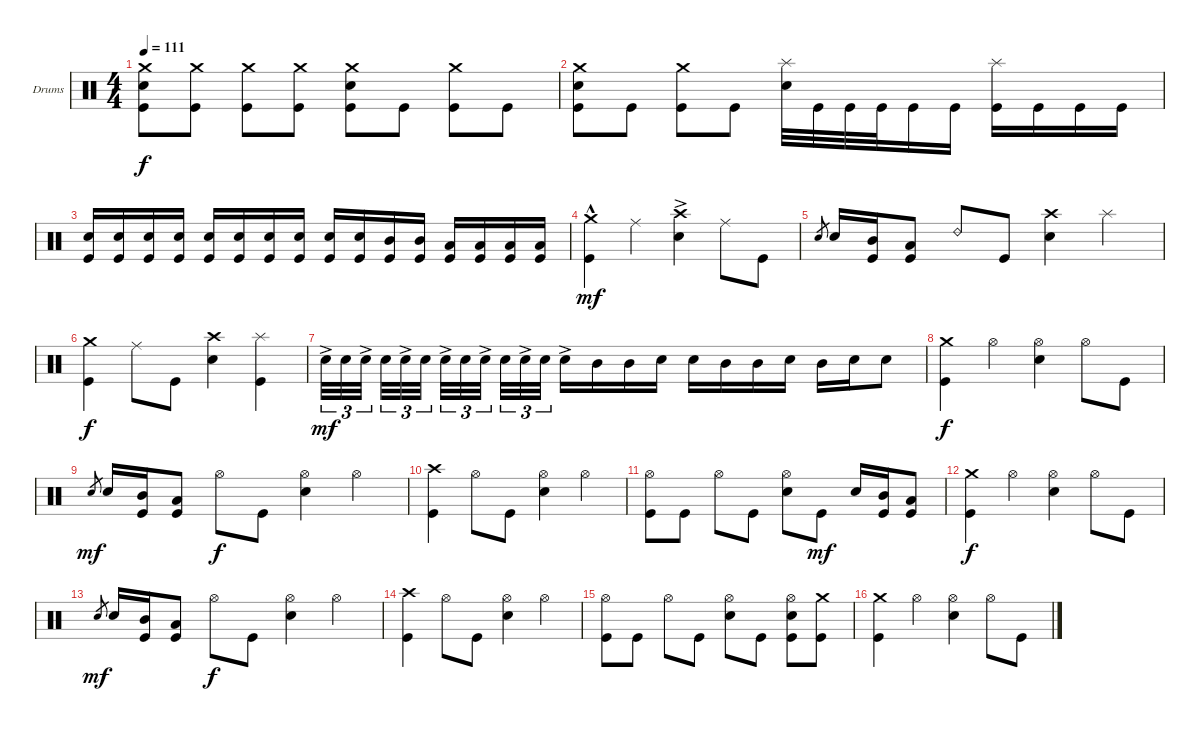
\defaultSystemsLayout 4
\bracketExtendMode groupsimilarinstruments
\firstSystemTrackNameOrientation horizontal
\otherSystemsTrackNameOrientation horizontal
\track ("Drumkit" "Drums") {instrument percussion}
\staff {score}
\articulation defaults
\ts (4 4)
\tempo 111
\clef neutral
\ks c
("Crash medium (hit)" "Snare (hit) 2" "Kick (hit)").8{dy f} ("Crash medium (hit)" "Kick (hit)").8 ("Crash medium (hit)" "Kick (hit)").8 ("Crash medium (hit)" "Kick (hit)").8 ("Crash medium (hit)" "Snare (hit) 2" "Kick (hit)").8 "Kick (hit)".8 ("Crash medium (hit)" "Kick (hit)").8 "Kick (hit)".8 |
("Crash medium (hit)" "Snare (hit) 2" "Kick (hit)").8 "Kick (hit)".8 ("Crash medium (hit)" "Kick (hit)").8 "Kick (hit)".8 ("Splash (hit)" "Snare (hit) 2").32 "Kick (hit)".32 "Kick (hit)".32 "Kick (hit)".32 "Kick (hit)".16 "Kick (hit)".16 ("Splash (hit)" "Kick (hit)").16 "Kick (hit)".16 "Kick (hit)".16 "Kick (hit)".16 |
("Snare (hit) 2" "Kick (hit)").16 ("Snare (hit) 2" "Kick (hit)").16 ("Snare (hit) 2" "Kick (hit)").16 ("Snare (hit) 2" "Kick (hit)").16 ("Snare (hit) 2" "Kick (hit)").16 ("Snare (hit) 2" "Kick (hit)").16 ("Snare (hit) 2" "Kick (hit)").16 ("Snare (hit) 2" "Kick (hit)").16 ("Snare (hit) 2" "Kick (hit)").16 ("Snare (hit) 2" "Kick (hit)").16 ("Mid Tom (hit)" "Kick (hit)").16 ("Mid Tom (hit)" "Kick (hit)").16 ("Low Tom (hit)" "Kick (hit)").16 ("Low Tom (hit)" "Kick (hit)").16 ("Low Tom (hit)" "Kick (hit)").16 ("Low Tom (hit)" "Kick (hit)").16 |
("Kick (hit)" "Crash medium (hit)"{hac}).4{dy mf} "Ride (middle)".4 ("Snare (hit) 2"{ac} "Crash high (hit)").4 "Ride (middle)".8 "Kick (hit)".8 |
"Snare (hit) 2".8{gr} "Snare (hit) 2".16 ("Kick (hit)" "Mid Tom (hit)").16 ("Kick (hit)" "Low Tom (hit)").8 "Ride (bell) 2".8 "Kick (hit)".8 ("Snare (hit) 2" "Crash high (hit)").4 "Splash (hit)".4 |
("Crash medium (hit)" "Kick (hit)").4{dy f} "Ride (middle)".8 "Kick (hit)".8 ("Crash high (hit)" "Snare (hit) 2").4 ("Splash (hit)" "Kick (hit)").4 |
"Snare (hit) 2"{ac}.32{tu (3 2) dy mf} "Snare (hit) 2".32{tu (3 2)} "Snare (hit) 2"{ac}.32{tu (3 2)} "Snare (hit) 2".32{tu (3 2)} "Snare (hit) 2"{ac}.32{tu (3 2)} "Snare (hit) 2".32{tu (3 2)} "Snare (hit) 2"{ac}.32{tu (3 2)} "Snare (hit) 2".32{tu (3 2)} "Snare (hit) 2"{ac}.32{tu (3 2)} "Snare (hit) 2".32{tu (3 2)} "Snare (hit) 2"{ac}.32{tu (3 2)} "Snare (hit) 2".32{tu (3 2)} "Snare (hit) 2"{ac}.16 "Mid Tom (hit)".16 "Mid Tom (hit)".16 "Snare (hit) 2".16 "Snare (hit) 2".16 "Mid Tom (hit)".16 "Mid Tom (hit)".16 "Snare (hit) 2".16 "Mid Tom (hit)".16 "Snare (hit) 2".16 "Snare (hit) 2".8 |
("Crash medium (hit)" "Kick (hit)").4{dy f} "Hi-Hat (open)".4 ("Snare (hit) 2" "Hi-Hat (open)").4 "Hi-Hat (open)".8 "Kick (hit)".8 |
"Snare (hit) 2".8{gr dy mf} "Snare (hit) 2".16 ("Kick (hit)" "Mid Tom (hit)").16 ("Kick (hit)" "Low Tom (hit)").8 "Hi-Hat (open)".8{dy f} "Kick (hit)".8 ("Snare (hit) 2" "Hi-Hat (open)").4 "Hi-Hat (open)".4 |
("Kick (hit)" "Crash high (hit)").4 "Hi-Hat (open)".8 "Kick (hit)".8 ("Snare (hit) 2" "Hi-Hat (open)").4 "Hi-Hat (open)".4 |
("Hi-Hat (open)" "Kick (hit)").8 "Kick (hit)".8 "Hi-Hat (open)".8 "Kick (hit)".8 ("Hi-Hat (open)" "Snare (hit) 2").8 "Kick (hit)".8{dy mf} "Snare (hit) 2".16 ("Kick (hit)" "Mid Tom (hit)").16 ("Kick (hit)" "Low Tom (hit)").8 |
("Crash medium (hit)" "Kick (hit)").4{dy f} "Hi-Hat (open)".4 ("Snare (hit) 2" "Hi-Hat (open)").4 "Hi-Hat (open)".8 "Kick (hit)".8 |
"Snare (hit) 2".8{gr dy mf} "Snare (hit) 2".16 ("Kick (hit)" "Mid Tom (hit)").16 ("Kick (hit)" "Low Tom (hit)").8 "Hi-Hat (open)".8{dy f} "Kick (hit)".8 ("Snare (hit) 2" "Hi-Hat (open)").4 "Hi-Hat (open)".4 |
("Kick (hit)" "Crash high (hit)").4 "Hi-Hat (open)".8 "Kick (hit)".8 ("Snare (hit) 2" "Hi-Hat (open)").4 "Hi-Hat (open)".4 |
("Hi-Hat (open)" "Kick (hit)").8 "Kick (hit)".8 "Hi-Hat (open)".8 "Kick (hit)".8 ("Hi-Hat (open)" "Snare (hit) 2").8 "Kick (hit)".8 ("Hi-Hat (open)" "Snare (hit) 2" "Kick (hit)").8 ("Crash medium (hit)" "Kick (hit)").8 |
("Crash medium (hit)" "Kick (hit)").4 "Hi-Hat (open)".4 ("Snare (hit) 2" "Hi-Hat (open)").4 "Hi-Hat (open)".8 "Kick (hit)".8
